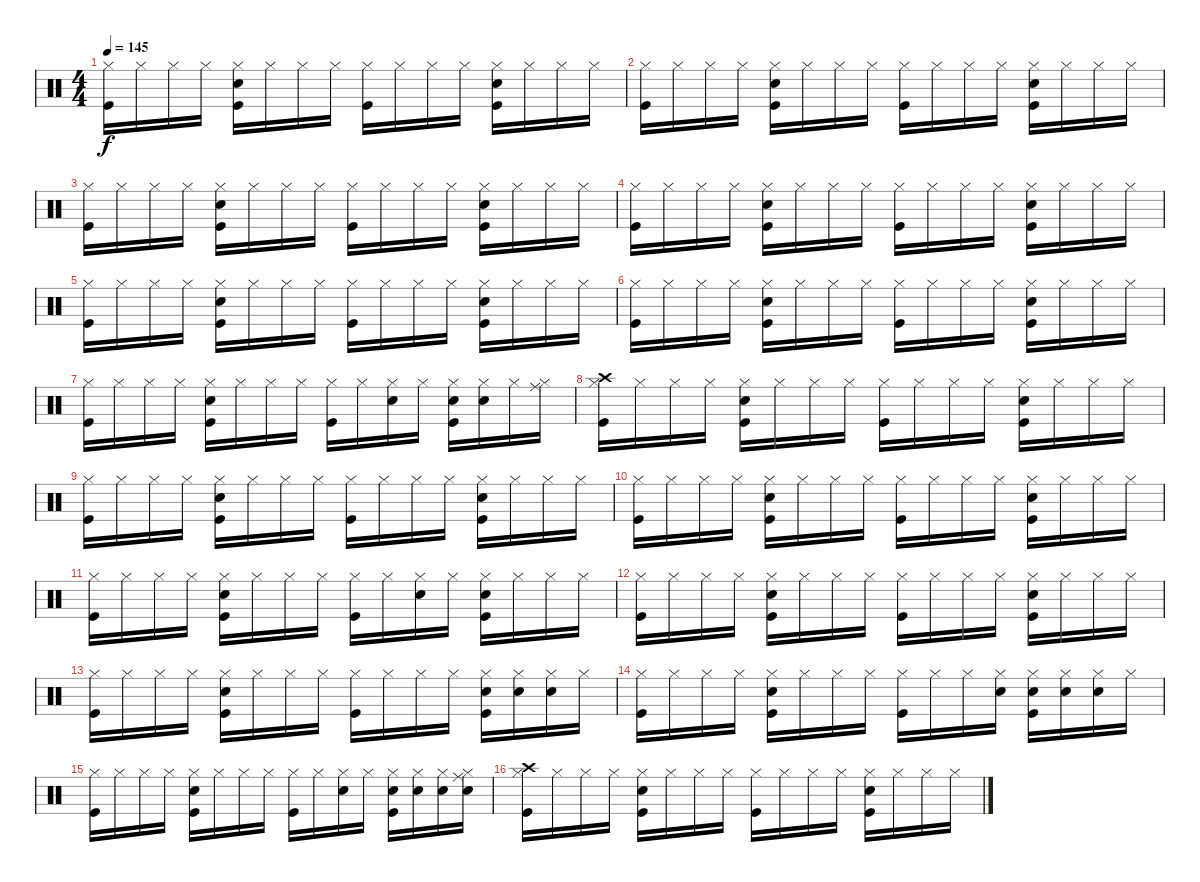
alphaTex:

\track "" {instrument percussion}
\staff {score}
\articulation defaults
\ts (4 4)
\tempo 145
\clef neutral
\ks c
("Hi-Hat (closed)" "Kick (hit)").16{dy f} "Hi-Hat (closed)".16 "Hi-Hat (closed)".16 "Hi-Hat (closed)".16 ("Snare (hit) 2" "Hi-Hat (closed)" "Kick (hit)").16 "Hi-Hat (closed)".16 "Hi-Hat (closed)".16 "Hi-Hat (closed)".16 ("Hi-Hat (closed)" "Kick (hit)").16 "Hi-Hat (closed)".16 "Hi-Hat (closed)".16 "Hi-Hat (closed)".16 ("Snare (hit) 2" "Hi-Hat (closed)" "Kick (hit)").16 "Hi-Hat (closed)".16 "Hi-Hat (closed)".16 "Hi-Hat (closed)".16 |
("Hi-Hat (closed)" "Kick (hit)").16 "Hi-Hat (closed)".16 "Hi-Hat (closed)".16 "Hi-Hat (closed)".16 ("Snare (hit) 2" "Hi-Hat (closed)" "Kick (hit)").16 "Hi-Hat (closed)".16 "Hi-Hat (closed)".16 "Hi-Hat (closed)".16 ("Hi-Hat (closed)" "Kick (hit)").16 "Hi-Hat (closed)".16 "Hi-Hat (closed)".16 "Hi-Hat (closed)".16 ("Snare (hit) 2" "Hi-Hat (closed)" "Kick (hit)").16 "Hi-Hat (closed)".16 "Hi-Hat (closed)".16 "Hi-Hat (closed)".16 |
("Hi-Hat (closed)" "Kick (hit)").16 "Hi-Hat (closed)".16 "Hi-Hat (closed)".16 "Hi-Hat (closed)".16 ("Snare (hit) 2" "Hi-Hat (closed)" "Kick (hit)").16 "Hi-Hat (closed)".16 "Hi-Hat (closed)".16 "Hi-Hat (closed)".16 ("Hi-Hat (closed)" "Kick (hit)").16 "Hi-Hat (closed)".16 "Hi-Hat (closed)".16 "Hi-Hat (closed)".16 ("Snare (hit) 2" "Hi-Hat (closed)" "Kick (hit)").16 "Hi-Hat (closed)".16 "Hi-Hat (closed)".16 "Hi-Hat (closed)".16 |
("Hi-Hat (closed)" "Kick (hit)").16 "Hi-Hat (closed)".16 "Hi-Hat (closed)".16 "Hi-Hat (closed)".16 ("Snare (hit) 2" "Hi-Hat (closed)" "Kick (hit)").16 "Hi-Hat (closed)".16 "Hi-Hat (closed)".16 "Hi-Hat (closed)".16 ("Hi-Hat (closed)" "Kick (hit)").16 "Hi-Hat (closed)".16 "Hi-Hat (closed)".16 "Hi-Hat (closed)".16 ("Snare (hit) 2" "Hi-Hat (closed)" "Kick (hit)").16 "Hi-Hat (closed)".16 "Hi-Hat (closed)".16 "Hi-Hat (closed)".16 |
("Hi-Hat (closed)" "Kick (hit)").16 "Hi-Hat (closed)".16 "Hi-Hat (closed)".16 "Hi-Hat (closed)".16 ("Snare (hit) 2" "Hi-Hat (closed)" "Kick (hit)").16 "Hi-Hat (closed)".16 "Hi-Hat (closed)".16 "Hi-Hat (closed)".16 ("Hi-Hat (closed)" "Kick (hit)").16 "Hi-Hat (closed)".16 "Hi-Hat (closed)".16 "Hi-Hat (closed)".16 ("Snare (hit) 2" "Hi-Hat (closed)" "Kick (hit)").16 "Hi-Hat (closed)".16 "Hi-Hat (closed)".16 "Hi-Hat (closed)".16 |
("Hi-Hat (closed)" "Kick (hit)").16 "Hi-Hat (closed)".16 "Hi-Hat (closed)".16 "Hi-Hat (closed)".16 ("Snare (hit) 2" "Hi-Hat (closed)" "Kick (hit)").16 "Hi-Hat (closed)".16 "Hi-Hat (closed)".16 "Hi-Hat (closed)".16 ("Hi-Hat (closed)" "Kick (hit)").16 "Hi-Hat (closed)".16 "Hi-Hat (closed)".16 "Hi-Hat (closed)".16 ("Snare (hit) 2" "Hi-Hat (closed)" "Kick (hit)").16 "Hi-Hat (closed)".16 "Hi-Hat (closed)".16 "Hi-Hat (closed)".16 |
("Hi-Hat (closed)" "Kick (hit)").16 "Hi-Hat (closed)".16 "Hi-Hat (closed)".16 "Hi-Hat (closed)".16 ("Snare (hit) 2" "Hi-Hat (closed)" "Kick (hit)").16 "Hi-Hat (closed)".16 "Hi-Hat (closed)".16 "Hi-Hat (closed)".16 ("Hi-Hat (closed)" "Kick (hit)").16 "Hi-Hat (closed)".16 ("Snare (hit) 2" "Hi-Hat (closed)").16 "Hi-Hat (closed)".16 ("Snare (hit) 2" "Hi-Hat (closed)" "Kick (hit)").16 ("Snare (hit) 2" "Hi-Hat (closed)").16 "Hi-Hat (closed)".16 ("Ride (middle)" "Hi-Hat (closed)").16 |
("Crash high (hit)" "Hi-Hat (closed)" "Kick (hit)").16 "Hi-Hat (closed)".16 "Hi-Hat (closed)".16 "Hi-Hat (closed)".16 ("Snare (hit) 2" "Hi-Hat (closed)" "Kick (hit)").16 "Hi-Hat (closed)".16 "Hi-Hat (closed)".16 "Hi-Hat (closed)".16 ("Hi-Hat (closed)" "Kick (hit)").16 "Hi-Hat (closed)".16 "Hi-Hat (closed)".16 "Hi-Hat (closed)".16 ("Snare (hit) 2" "Hi-Hat (closed)" "Kick (hit)").16 "Hi-Hat (closed)".16 "Hi-Hat (closed)".16 "Hi-Hat (closed)".16 |
("Hi-Hat (closed)" "Kick (hit)").16 "Hi-Hat (closed)".16 "Hi-Hat (closed)".16 "Hi-Hat (closed)".16 ("Snare (hit) 2" "Hi-Hat (closed)" "Kick (hit)").16 "Hi-Hat (closed)".16 "Hi-Hat (closed)".16 "Hi-Hat (closed)".16 ("Hi-Hat (closed)" "Kick (hit)").16 "Hi-Hat (closed)".16 "Hi-Hat (closed)".16 "Hi-Hat (closed)".16 ("Snare (hit) 2" "Hi-Hat (closed)" "Kick (hit)").16 "Hi-Hat (closed)".16 "Hi-Hat (closed)".16 "Hi-Hat (closed)".16 |
("Hi-Hat (closed)" "Kick (hit)").16 "Hi-Hat (closed)".16 "Hi-Hat (closed)".16 "Hi-Hat (closed)".16 ("Snare (hit) 2" "Hi-Hat (closed)" "Kick (hit)").16 "Hi-Hat (closed)".16 "Hi-Hat (closed)".16 "Hi-Hat (closed)".16 ("Hi-Hat (closed)" "Kick (hit)").16 "Hi-Hat (closed)".16 "Hi-Hat (closed)".16 "Hi-Hat (closed)".16 ("Snare (hit) 2" "Hi-Hat (closed)" "Kick (hit)").16 "Hi-Hat (closed)".16 "Hi-Hat (closed)".16 "Hi-Hat (closed)".16 |
("Hi-Hat (closed)" "Kick (hit)").16 "Hi-Hat (closed)".16 "Hi-Hat (closed)".16 "Hi-Hat (closed)".16 ("Snare (hit) 2" "Hi-Hat (closed)" "Kick (hit)").16 "Hi-Hat (closed)".16 "Hi-Hat (closed)".16 "Hi-Hat (closed)".16 ("Hi-Hat (closed)" "Kick (hit)").16 "Hi-Hat (closed)".16 ("Snare (hit) 2" "Hi-Hat (closed)").16 "Hi-Hat (closed)".16 ("Snare (hit) 2" "Hi-Hat (closed)" "Kick (hit)").16 "Hi-Hat (closed)".16 "Hi-Hat (closed)".16 "Hi-Hat (closed)".16 |
("Hi-Hat (closed)" "Kick (hit)").16 "Hi-Hat (closed)".16 "Hi-Hat (closed)".16 "Hi-Hat (closed)".16 ("Snare (hit) 2" "Hi-Hat (closed)" "Kick (hit)").16 "Hi-Hat (closed)".16 "Hi-Hat (closed)".16 "Hi-Hat (closed)".16 ("Hi-Hat (closed)" "Kick (hit)").16 "Hi-Hat (closed)".16 "Hi-Hat (closed)".16 "Hi-Hat (closed)".16 ("Snare (hit) 2" "Hi-Hat (closed)" "Kick (hit)").16 "Hi-Hat (closed)".16 "Hi-Hat (closed)".16 "Hi-Hat (closed)".16 |
("Hi-Hat (closed)" "Kick (hit)").16 "Hi-Hat (closed)".16 "Hi-Hat (closed)".16 "Hi-Hat (closed)".16 ("Snare (hit) 2" "Hi-Hat (closed)" "Kick (hit)").16 "Hi-Hat (closed)".16 "Hi-Hat (closed)".16 "Hi-Hat (closed)".16 ("Hi-Hat (closed)" "Kick (hit)").16 "Hi-Hat (closed)".16 "Hi-Hat (closed)".16 "Hi-Hat (closed)".16 ("Snare (hit) 2" "Hi-Hat (closed)" "Kick (hit)").16 ("Snare (hit) 2" "Hi-Hat (closed)").16 ("Snare (hit) 2" "Hi-Hat (closed)").16 "Hi-Hat (closed)".16 |
("Hi-Hat (closed)" "Kick (hit)").16 "Hi-Hat (closed)".16 "Hi-Hat (closed)".16 "Hi-Hat (closed)".16 ("Snare (hit) 2" "Hi-Hat (closed)" "Kick (hit)").16 "Hi-Hat (closed)".16 "Hi-Hat (closed)".16 "Hi-Hat (closed)".16 ("Hi-Hat (closed)" "Kick (hit)").16 "Hi-Hat (closed)".16 "Hi-Hat (closed)".16 ("Snare (hit) 2" "Hi-Hat (closed)").16 ("Snare (hit) 2" "Hi-Hat (closed)" "Kick (hit)").16 ("Snare (hit) 2" "Hi-Hat (closed)").16 ("Snare (hit) 2" "Hi-Hat (closed)").16 "Hi-Hat (closed)".16 |
("Hi-Hat (closed)" "Kick (hit)").16 "Hi-Hat (closed)".16 "Hi-Hat (closed)".16 "Hi-Hat (closed)".16 ("Snare (hit) 2" "Hi-Hat (closed)" "Kick (hit)").16 "Hi-Hat (closed)".16 "Hi-Hat (closed)".16 "Hi-Hat (closed)".16 ("Hi-Hat (closed)" "Kick (hit)").16 "Hi-Hat (closed)".16 ("Snare (hit) 2" "Hi-Hat (closed)").16 "Hi-Hat (closed)".16 ("Snare (hit) 2" "Hi-Hat (closed)" "Kick (hit)").16 ("Snare (hit) 2" "Hi-Hat (closed)").16 ("Snare (hit) 2" "Hi-Hat (closed)").16 ("Snare (hit) 2" "Ride (middle)" "Hi-Hat (closed)").16 |
("Crash high (hit)" "Hi-Hat (closed)" "Kick (hit)").16 "Hi-Hat (closed)".16 "Hi-Hat (closed)".16 "Hi-Hat (closed)".16 ("Snare (hit) 2" "Hi-Hat (closed)" "Kick (hit)").16 "Hi-Hat (closed)".16 "Hi-Hat (closed)".16 "Hi-Hat (closed)".16 ("Hi-Hat (closed)" "Kick (hit)").16 "Hi-Hat (closed)".16 "Hi-Hat (closed)".16 "Hi-Hat (closed)".16 ("Snare (hit) 2" "Hi-Hat (closed)" "Kick (hit)").16 "Hi-Hat (closed)".16 "Hi-Hat (closed)".16 "Hi-Hat (closed)".16
